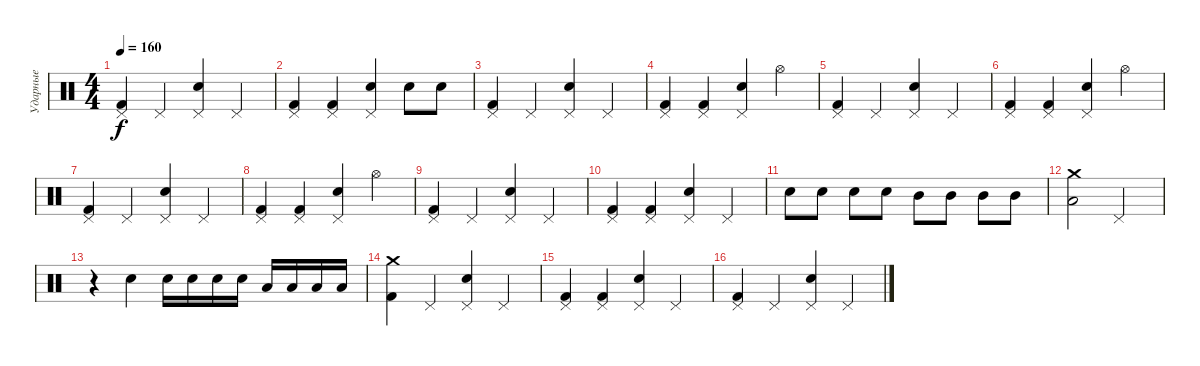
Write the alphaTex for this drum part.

\track ("Ударные" "Ударные") {instrument percussion}
\staff {score}
\articulation defaults
\ts (4 4)
\tempo 160
\clef neutral
\ks c
("Pedal Hi-Hat (hit)" "Kick (hit) 2").4{dy f} "Pedal Hi-Hat (hit)".4 ("Snare (hit) 2" "Pedal Hi-Hat (hit)").4 "Pedal Hi-Hat (hit)".4 |
("Pedal Hi-Hat (hit)" "Kick (hit) 2").4 ("Pedal Hi-Hat (hit)" "Kick (hit) 2").4 ("Snare (hit) 2" "Pedal Hi-Hat (hit)").4 "Snare (hit) 2".8 "Snare (hit) 2".8 |
("Pedal Hi-Hat (hit)" "Kick (hit) 2").4 "Pedal Hi-Hat (hit)".4 ("Snare (hit) 2" "Pedal Hi-Hat (hit)").4 "Pedal Hi-Hat (hit)".4 |
("Pedal Hi-Hat (hit)" "Kick (hit) 2").4 ("Pedal Hi-Hat (hit)" "Kick (hit) 2").4 ("Snare (hit) 2" "Pedal Hi-Hat (hit)").4 "Hi-Hat (open)".4 |
("Pedal Hi-Hat (hit)" "Kick (hit) 2").4 "Pedal Hi-Hat (hit)".4 ("Snare (hit) 2" "Pedal Hi-Hat (hit)").4 "Pedal Hi-Hat (hit)".4 |
("Pedal Hi-Hat (hit)" "Kick (hit) 2").4 ("Pedal Hi-Hat (hit)" "Kick (hit) 2").4 ("Snare (hit) 2" "Pedal Hi-Hat (hit)").4 "Hi-Hat (open)".4 |
("Pedal Hi-Hat (hit)" "Kick (hit) 2").4 "Pedal Hi-Hat (hit)".4 ("Snare (hit) 2" "Pedal Hi-Hat (hit)").4 "Pedal Hi-Hat (hit)".4 |
("Pedal Hi-Hat (hit)" "Kick (hit) 2").4 ("Pedal Hi-Hat (hit)" "Kick (hit) 2").4 ("Snare (hit) 2" "Pedal Hi-Hat (hit)").4 "Hi-Hat (open)".4 |
("Pedal Hi-Hat (hit)" "Kick (hit) 2").4 "Pedal Hi-Hat (hit)".4 ("Snare (hit) 2" "Pedal Hi-Hat (hit)").4 "Pedal Hi-Hat (hit)".4 |
("Pedal Hi-Hat (hit)" "Kick (hit) 2").4 ("Pedal Hi-Hat (hit)" "Kick (hit) 2").4 ("Snare (hit) 2" "Pedal Hi-Hat (hit)").4 "Pedal Hi-Hat (hit)".4 |
"Snare (hit) 2".8 "Snare (hit) 2".8 "Snare (hit) 2".8 "Snare (hit) 2".8 "Mid Tom (hit)".8 "Mid Tom (hit)".8 "Mid Tom (hit)".8 "Mid Tom (hit)".8 |
("Crash medium (hit)" "Low Tom (hit)").2 "Pedal Hi-Hat (hit)".2 |
r.4 "Snare (hit) 2".4 "Snare (hit) 2".16 "Snare (hit) 2".16 "Snare (hit) 2".16 "Snare (hit) 2".16 "Low Tom (hit)".16 "Low Tom (hit)".16 "Low Tom (hit)".16 "Low Tom (hit)".16 |
("Crash medium (hit)" "Kick (hit) 2").4 "Pedal Hi-Hat (hit)".4 ("Snare (hit) 2" "Pedal Hi-Hat (hit)").4 "Pedal Hi-Hat (hit)".4 |
("Pedal Hi-Hat (hit)" "Kick (hit) 2").4 ("Pedal Hi-Hat (hit)" "Kick (hit) 2").4 ("Snare (hit) 2" "Pedal Hi-Hat (hit)").4 "Pedal Hi-Hat (hit)".4 |
("Pedal Hi-Hat (hit)" "Kick (hit) 2").4 "Pedal Hi-Hat (hit)".4 ("Snare (hit) 2" "Pedal Hi-Hat (hit)").4 "Pedal Hi-Hat (hit)".4
